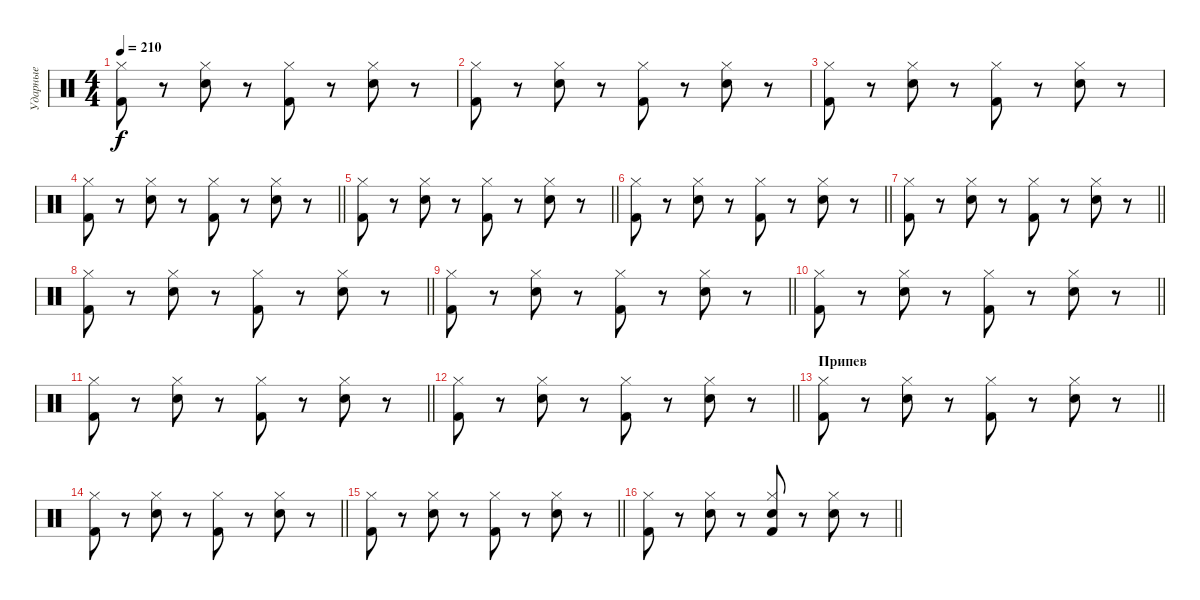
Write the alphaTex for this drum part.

\track ("Ударные" "Ударные") {instrument percussion}
\staff {score}
\articulation defaults
\ts (4 4)
\tempo 210
\clef neutral
\ks c
("Kick (hit) 2" "Hi-Hat (closed)").8{dy f} r.8 ("Snare (hit) 2" "Hi-Hat (closed)").8 r.8 ("Kick (hit) 2" "Hi-Hat (closed)").8 r.8 ("Snare (hit) 2" "Hi-Hat (closed)").8 r.8 |
("Kick (hit) 2" "Hi-Hat (closed)").8 r.8 ("Snare (hit) 2" "Hi-Hat (closed)").8 r.8 ("Kick (hit) 2" "Hi-Hat (closed)").8 r.8 ("Snare (hit) 2" "Hi-Hat (closed)").8 r.8 |
("Kick (hit) 2" "Hi-Hat (closed)").8 r.8 ("Snare (hit) 2" "Hi-Hat (closed)").8 r.8 ("Kick (hit) 2" "Hi-Hat (closed)").8 r.8 ("Snare (hit) 2" "Hi-Hat (closed)").8 r.8 |
\barLineRight lightlight
("Kick (hit) 2" "Hi-Hat (closed)").8 r.8 ("Snare (hit) 2" "Hi-Hat (closed)").8 r.8 ("Kick (hit) 2" "Hi-Hat (closed)").8 r.8 ("Snare (hit) 2" "Hi-Hat (closed)").8 r.8 |
\barLineRight lightlight
("Kick (hit) 2" "Hi-Hat (closed)").8 r.8 ("Snare (hit) 2" "Hi-Hat (closed)").8 r.8 ("Kick (hit) 2" "Hi-Hat (closed)").8 r.8 ("Snare (hit) 2" "Hi-Hat (closed)").8 r.8 |
\barLineRight lightlight
("Kick (hit) 2" "Hi-Hat (closed)").8 r.8 ("Snare (hit) 2" "Hi-Hat (closed)").8 r.8 ("Kick (hit) 2" "Hi-Hat (closed)").8 r.8 ("Snare (hit) 2" "Hi-Hat (closed)").8 r.8 |
\barLineRight lightlight
("Kick (hit) 2" "Hi-Hat (closed)").8 r.8 ("Snare (hit) 2" "Hi-Hat (closed)").8 r.8 ("Kick (hit) 2" "Hi-Hat (closed)").8 r.8 ("Snare (hit) 2" "Hi-Hat (closed)").8 r.8 |
\barLineRight lightlight
("Kick (hit) 2" "Hi-Hat (closed)").8 r.8 ("Snare (hit) 2" "Hi-Hat (closed)").8 r.8 ("Kick (hit) 2" "Hi-Hat (closed)").8 r.8 ("Snare (hit) 2" "Hi-Hat (closed)").8 r.8 |
\barLineRight lightlight
("Kick (hit) 2" "Hi-Hat (closed)").8 r.8 ("Snare (hit) 2" "Hi-Hat (closed)").8 r.8 ("Kick (hit) 2" "Hi-Hat (closed)").8 r.8 ("Snare (hit) 2" "Hi-Hat (closed)").8 r.8 |
\barLineRight lightlight
("Kick (hit) 2" "Hi-Hat (closed)").8 r.8 ("Snare (hit) 2" "Hi-Hat (closed)").8 r.8 ("Kick (hit) 2" "Hi-Hat (closed)").8 r.8 ("Snare (hit) 2" "Hi-Hat (closed)").8 r.8 |
\barLineRight lightlight
("Kick (hit) 2" "Hi-Hat (closed)").8 r.8 ("Snare (hit) 2" "Hi-Hat (closed)").8 r.8 ("Kick (hit) 2" "Hi-Hat (closed)").8 r.8 ("Snare (hit) 2" "Hi-Hat (closed)").8 r.8 |
\barLineRight lightlight
("Kick (hit) 2" "Hi-Hat (closed)").8 r.8 ("Snare (hit) 2" "Hi-Hat (closed)").8 r.8 ("Kick (hit) 2" "Hi-Hat (closed)").8 r.8 ("Snare (hit) 2" "Hi-Hat (closed)").8 r.8 |
\section ("" "Припев")
\barLineRight lightlight
("Kick (hit) 2" "Hi-Hat (closed)").8 r.8 ("Snare (hit) 2" "Hi-Hat (closed)").8 r.8 ("Kick (hit) 2" "Hi-Hat (closed)").8 r.8 ("Snare (hit) 2" "Hi-Hat (closed)").8 r.8 |
\barLineRight lightlight
("Kick (hit) 2" "Hi-Hat (closed)").8 r.8 ("Snare (hit) 2" "Hi-Hat (closed)").8 r.8 ("Kick (hit) 2" "Hi-Hat (closed)").8 r.8 ("Snare (hit) 2" "Hi-Hat (closed)").8 r.8 |
\barLineRight lightlight
("Kick (hit) 2" "Hi-Hat (closed)").8 r.8 ("Snare (hit) 2" "Hi-Hat (closed)").8 r.8 ("Kick (hit) 2" "Hi-Hat (closed)").8 r.8 ("Snare (hit) 2" "Hi-Hat (closed)").8 r.8 |
\barLineRight lightlight
("Kick (hit) 2" "Hi-Hat (closed)").8 r.8 ("Snare (hit) 2" "Hi-Hat (closed)").8 r.8 ("Kick (hit) 2" "Snare (hit) 2" "Hi-Hat (closed)").8 r.8 ("Snare (hit) 2" "Hi-Hat (closed)").8 r.8
